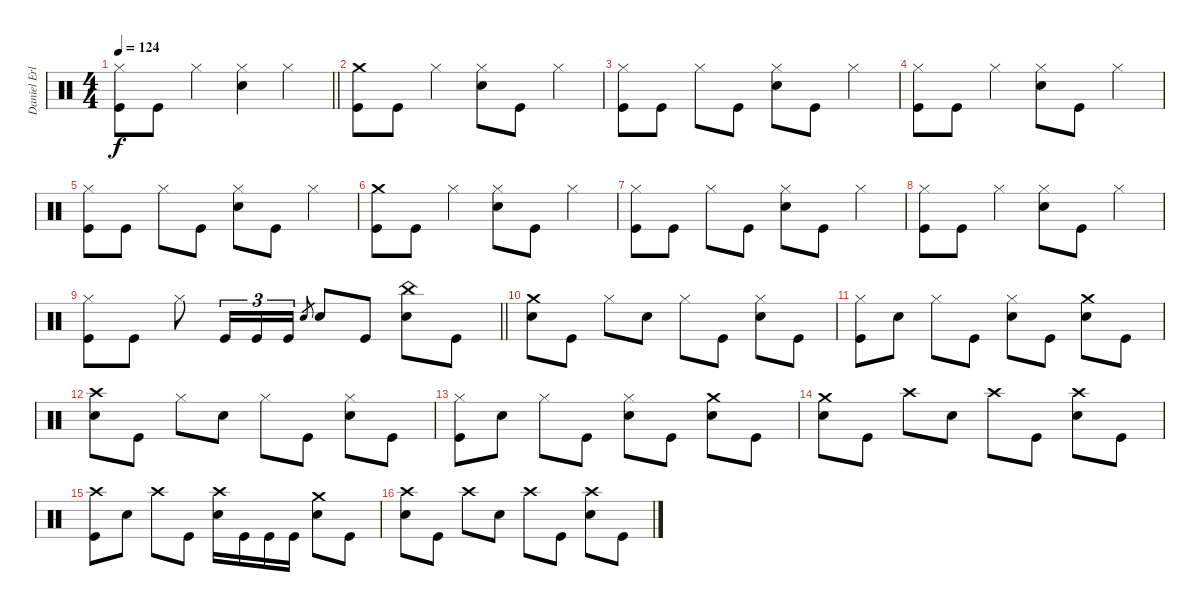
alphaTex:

\track ("Daniel Erlandsson" "Daniel Erl") {instrument percussion}
\staff {score}
\articulation defaults
\ts (4 4)
\tempo 124
\clef neutral
\barLineRight lightlight
\ks c
("Hi-Hat (closed)" "Kick (hit)").8{dy f} "Kick (hit)".8 "Hi-Hat (closed)".4 ("Hi-Hat (closed)" "Snare (hit) 2").4 "Hi-Hat (closed)".4 |
\section ("" "")
("Crash medium (hit)" "Kick (hit)").8 "Kick (hit)".8 "Hi-Hat (closed)".4 ("Hi-Hat (closed)" "Snare (hit) 2").8 "Kick (hit)".8 "Hi-Hat (closed)".4 |
("Hi-Hat (closed)" "Kick (hit)").8 "Kick (hit)".8 "Hi-Hat (closed)".8 "Kick (hit)".8 ("Hi-Hat (closed)" "Snare (hit) 2").8 "Kick (hit)".8 "Hi-Hat (closed)".4 |
("Hi-Hat (closed)" "Kick (hit)").8 "Kick (hit)".8 "Hi-Hat (closed)".4 ("Hi-Hat (closed)" "Snare (hit) 2").8 "Kick (hit)".8 "Hi-Hat (closed)".4 |
("Hi-Hat (closed)" "Kick (hit)").8 "Kick (hit)".8 "Hi-Hat (closed)".8 "Kick (hit)".8 ("Hi-Hat (closed)" "Snare (hit) 2").8 "Kick (hit)".8 "Hi-Hat (closed)".4 |
("Crash medium (hit)" "Kick (hit)").8 "Kick (hit)".8 "Hi-Hat (closed)".4 ("Hi-Hat (closed)" "Snare (hit) 2").8 "Kick (hit)".8 "Hi-Hat (closed)".4 |
("Hi-Hat (closed)" "Kick (hit)").8 "Kick (hit)".8 "Hi-Hat (closed)".8 "Kick (hit)".8 ("Hi-Hat (closed)" "Snare (hit) 2").8 "Kick (hit)".8 "Hi-Hat (closed)".4 |
("Hi-Hat (closed)" "Kick (hit)").8 "Kick (hit)".8 "Hi-Hat (closed)".4 ("Hi-Hat (closed)" "Snare (hit) 2").8 "Kick (hit)".8 "Hi-Hat (closed)".4 |
\barLineRight lightlight
("Hi-Hat (closed)" "Kick (hit)").8 "Kick (hit)".8 "Hi-Hat (closed)".8 "Kick (hit)".16{tu (3 2)} "Kick (hit)".16{tu (3 2)} "Kick (hit)".16{tu (3 2)} "Snare (hit) 2".8{gr} "Snare (hit) 2".8 "Kick (hit)".8 ("China (hit)" "Snare (hit) 2").8 "Kick (hit)".8 |
\section ("" "")
("Crash medium (hit)" "Snare (hit) 2").8 "Kick (hit)".8 "Hi-Hat (closed)".8 "Snare (hit) 2".8 "Hi-Hat (closed)".8 "Kick (hit)".8 ("Hi-Hat (closed)" "Snare (hit) 2").8 "Kick (hit)".8 |
("Hi-Hat (closed)" "Kick (hit)").8 "Snare (hit) 2".8 "Hi-Hat (closed)".8 "Kick (hit)".8 ("Hi-Hat (closed)" "Snare (hit) 2").8 "Kick (hit)".8 ("Crash medium (hit)" "Snare (hit) 2").8 "Kick (hit)".8 |
("Crash high (hit)" "Snare (hit) 2").8 "Kick (hit)".8 "Hi-Hat (closed)".8 "Snare (hit) 2".8 "Hi-Hat (closed)".8 "Kick (hit)".8 ("Hi-Hat (closed)" "Snare (hit) 2").8 "Kick (hit)".8 |
("Hi-Hat (closed)" "Kick (hit)").8 "Snare (hit) 2".8 "Hi-Hat (closed)".8 "Kick (hit)".8 ("Hi-Hat (closed)" "Snare (hit) 2").8 "Kick (hit)".8 ("Crash medium (hit)" "Snare (hit) 2").8 "Kick (hit)".8 |
("Crash medium (hit)" "Snare (hit) 2").8 "Kick (hit)".8 "Crash high (hit)".8 "Snare (hit) 2".8 "Crash high (hit)".8 "Kick (hit)".8 ("Crash high (hit)" "Snare (hit) 2").8 "Kick (hit)".8 |
("Crash high (hit)" "Kick (hit)").8 "Snare (hit) 2".8 "Crash high (hit)".8 "Kick (hit)".8 ("Crash high (hit)" "Snare (hit) 2").16 "Kick (hit)".16 "Kick (hit)".16 "Kick (hit)".16 ("Crash medium (hit)" "Snare (hit) 2").8 "Kick (hit)".8 |
("Crash high (hit)" "Snare (hit) 2").8 "Kick (hit)".8 "Crash high (hit)".8 "Snare (hit) 2".8 "Crash high (hit)".8 "Kick (hit)".8 ("Crash high (hit)" "Snare (hit) 2").8 "Kick (hit)".8
